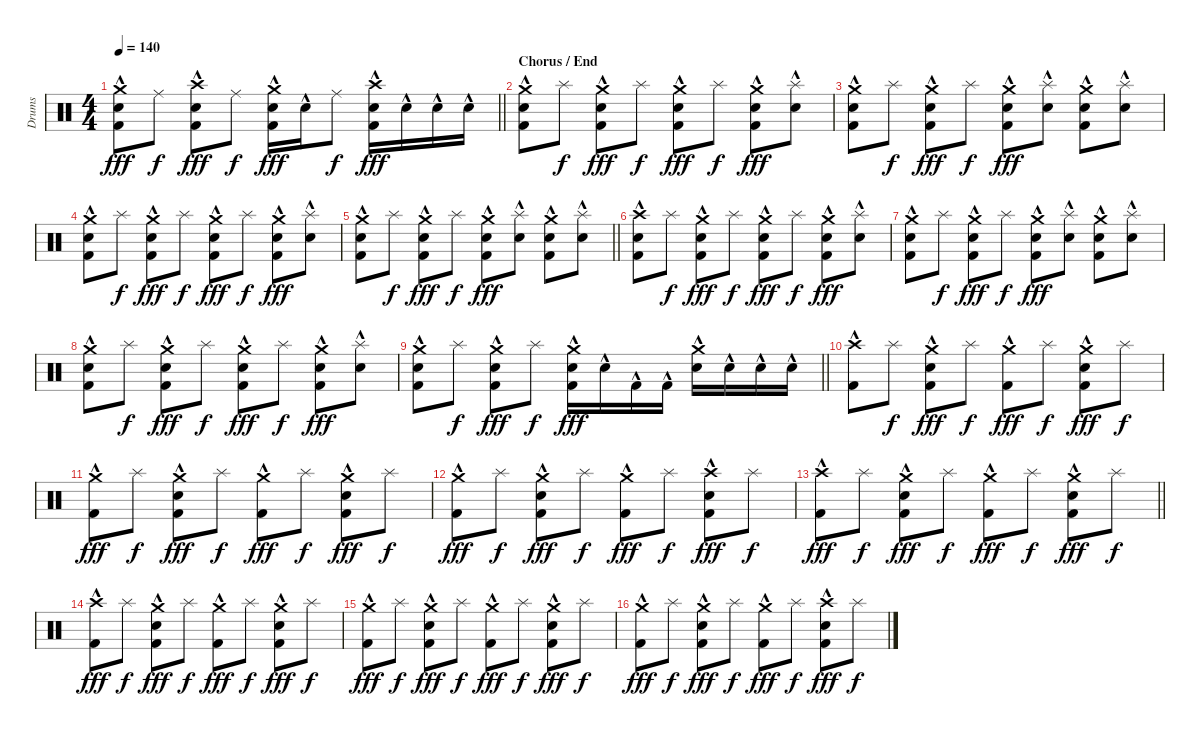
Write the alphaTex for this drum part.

\track ("Drums" "Drums") {instrument percussion}
\staff {score}
\articulation defaults
\ts (4 4)
\tempo 140
\clef neutral
\barLineRight lightlight
\ks c
("Kick (hit) 2"{hac} "Snare (hit) 2"{hac} "Crash medium (hit)").8{dy fff} "Ride (middle)".8{dy f} ("Kick (hit) 2"{hac} "Snare (hit) 2"{hac} "Crash high (hit)").8{dy fff} "Ride (middle)".8{dy f} ("Kick (hit) 2"{hac} "Snare (hit) 2"{hac} "Crash medium (hit)").16{dy fff} "Snare (hit) 2"{hac}.16 "Ride (middle)".8{dy f} ("Kick (hit) 2"{hac} "Snare (hit) 2"{hac} "Crash high (hit)").16{dy fff} "Snare (hit) 2"{hac}.16 "Snare (hit) 2"{hac}.16 "Snare (hit) 2"{hac}.16 |
\section ("" "Chorus / End")
("Kick (hit) 2"{hac} "Snare (hit) 2"{hac} "Crash medium (hit)").8 "Splash (hit)".8{dy f} ("Kick (hit) 2"{hac} "Snare (hit) 2"{hac} "Crash medium (hit)").8{dy fff} "Splash (hit)".8{dy f} ("Kick (hit) 2"{hac} "Snare (hit) 2" "Crash medium (hit)").8{dy fff} "Splash (hit)".8{dy f} ("Kick (hit) 2"{hac} "Snare (hit) 2"{hac} "Crash medium (hit)").8{dy fff} ("Snare (hit) 2"{hac} "Splash (hit)").8 |
("Kick (hit) 2"{hac} "Snare (hit) 2"{hac} "Crash medium (hit)").8 "Splash (hit)".8{dy f} ("Kick (hit) 2"{hac} "Snare (hit) 2"{hac} "Crash medium (hit)").8{dy fff} "Splash (hit)".8{dy f} ("Kick (hit) 2"{hac} "Snare (hit) 2" "Crash medium (hit)").8{dy fff} ("Snare (hit) 2"{hac} "Splash (hit)").8 ("Kick (hit) 2"{hac} "Snare (hit) 2"{hac} "Crash medium (hit)").8 ("Snare (hit) 2"{hac} "Splash (hit)").8 |
("Kick (hit) 2"{hac} "Snare (hit) 2"{hac} "Crash medium (hit)").8 "Splash (hit)".8{dy f} ("Kick (hit) 2"{hac} "Snare (hit) 2"{hac} "Crash medium (hit)").8{dy fff} "Splash (hit)".8{dy f} ("Kick (hit) 2"{hac} "Snare (hit) 2" "Crash medium (hit)").8{dy fff} "Splash (hit)".8{dy f} ("Kick (hit) 2"{hac} "Snare (hit) 2"{hac} "Crash medium (hit)").8{dy fff} ("Snare (hit) 2"{hac} "Splash (hit)").8 |
\barLineRight lightlight
("Kick (hit) 2"{hac} "Snare (hit) 2"{hac} "Crash medium (hit)").8 "Splash (hit)".8{dy f} ("Kick (hit) 2"{hac} "Snare (hit) 2"{hac} "Crash medium (hit)").8{dy fff} "Splash (hit)".8{dy f} ("Kick (hit) 2"{hac} "Snare (hit) 2" "Crash medium (hit)").8{dy fff} ("Snare (hit) 2"{hac} "Splash (hit)").8 ("Kick (hit) 2"{hac} "Snare (hit) 2"{hac} "Crash medium (hit)").8 ("Snare (hit) 2"{hac} "Splash (hit)").8 |
\section ("" "")
("Kick (hit) 2"{hac} "Snare (hit) 2"{hac} "Crash high (hit)").8 "Splash (hit)".8{dy f} ("Kick (hit) 2"{hac} "Snare (hit) 2"{hac} "Crash medium (hit)").8{dy fff} "Splash (hit)".8{dy f} ("Kick (hit) 2"{hac} "Snare (hit) 2" "Crash medium (hit)").8{dy fff} "Splash (hit)".8{dy f} ("Kick (hit) 2"{hac} "Snare (hit) 2"{hac} "Crash medium (hit)").8{dy fff} ("Snare (hit) 2"{hac} "Splash (hit)").8 |
("Kick (hit) 2"{hac} "Snare (hit) 2"{hac} "Crash medium (hit)").8 "Splash (hit)".8{dy f} ("Kick (hit) 2"{hac} "Snare (hit) 2"{hac} "Crash medium (hit)").8{dy fff} "Splash (hit)".8{dy f} ("Kick (hit) 2"{hac} "Snare (hit) 2" "Crash medium (hit)").8{dy fff} ("Snare (hit) 2"{hac} "Splash (hit)").8 ("Kick (hit) 2"{hac} "Snare (hit) 2"{hac} "Crash medium (hit)").8 ("Snare (hit) 2"{hac} "Splash (hit)").8 |
("Kick (hit) 2"{hac} "Snare (hit) 2"{hac} "Crash medium (hit)").8 "Splash (hit)".8{dy f} ("Kick (hit) 2"{hac} "Snare (hit) 2"{hac} "Crash medium (hit)").8{dy fff} "Splash (hit)".8{dy f} ("Kick (hit) 2"{hac} "Snare (hit) 2" "Crash medium (hit)").8{dy fff} "Splash (hit)".8{dy f} ("Kick (hit) 2"{hac} "Snare (hit) 2"{hac} "Crash medium (hit)").8{dy fff} ("Snare (hit) 2"{hac} "Splash (hit)").8 |
\barLineRight lightlight
("Kick (hit) 2"{hac} "Snare (hit) 2"{hac} "Crash medium (hit)").8 "Splash (hit)".8{dy f} ("Kick (hit) 2"{hac} "Snare (hit) 2"{hac} "Crash medium (hit)").8{dy fff} "Splash (hit)".8{dy f} ("Kick (hit) 2"{hac} "Snare (hit) 2" "Crash medium (hit)").16{dy fff} "Snare (hit) 2"{hac}.16 "Kick (hit) 2"{hac}.16 "Kick (hit) 2"{hac}.16 ("Snare (hit) 2"{hac} "Crash medium (hit)").16 "Snare (hit) 2"{hac}.16 "Snare (hit) 2"{hac}.16 "Snare (hit) 2"{hac}.16 |
\section ("" "")
("Kick (hit) 2"{hac} "Crash high (hit)").8 "Splash (hit)".8{dy f} ("Kick (hit) 2"{hac} "Snare (hit) 2"{hac} "Crash medium (hit)").8{dy fff} "Splash (hit)".8{dy f} ("Kick (hit) 2"{hac} "Crash medium (hit)").8{dy fff} "Splash (hit)".8{dy f} ("Kick (hit) 2"{hac} "Snare (hit) 2"{hac} "Crash medium (hit)").8{dy fff} "Splash (hit)".8{dy f} |
("Kick (hit) 2"{hac} "Crash medium (hit)").8{dy fff} "Splash (hit)".8{dy f} ("Kick (hit) 2"{hac} "Snare (hit) 2"{hac} "Crash medium (hit)").8{dy fff} "Splash (hit)".8{dy f} ("Kick (hit) 2"{hac} "Crash medium (hit)").8{dy fff} "Splash (hit)".8{dy f} ("Kick (hit) 2"{hac} "Snare (hit) 2"{hac} "Crash medium (hit)").8{dy fff} "Splash (hit)".8{dy f} |
("Kick (hit) 2"{hac} "Crash medium (hit)").8{dy fff} "Splash (hit)".8{dy f} ("Kick (hit) 2"{hac} "Snare (hit) 2"{hac} "Crash medium (hit)").8{dy fff} "Splash (hit)".8{dy f} ("Kick (hit) 2"{hac} "Crash medium (hit)").8{dy fff} "Splash (hit)".8{dy f} ("Kick (hit) 2"{hac} "Snare (hit) 2"{hac} "Crash high (hit)").8{dy fff} "Splash (hit)".8{dy f} |
\barLineRight lightlight
("Kick (hit) 2"{hac} "Crash high (hit)").8{dy fff} "Splash (hit)".8{dy f} ("Kick (hit) 2"{hac} "Snare (hit) 2"{hac} "Crash medium (hit)").8{dy fff} "Splash (hit)".8{dy f} ("Kick (hit) 2"{hac} "Crash medium (hit)").8{dy fff} "Splash (hit)".8{dy f} ("Kick (hit) 2"{hac} "Snare (hit) 2"{hac} "Crash medium (hit)").8{dy fff} "Splash (hit)".8{dy f} |
\section ("" "")
("Kick (hit) 2"{hac} "Crash high (hit)").8{dy fff} "Splash (hit)".8{dy f} ("Kick (hit) 2"{hac} "Snare (hit) 2"{hac} "Crash medium (hit)").8{dy fff} "Splash (hit)".8{dy f} ("Kick (hit) 2"{hac} "Crash medium (hit)").8{dy fff} "Splash (hit)".8{dy f} ("Kick (hit) 2"{hac} "Snare (hit) 2"{hac} "Crash medium (hit)").8{dy fff} "Splash (hit)".8{dy f} |
("Kick (hit) 2"{hac} "Crash medium (hit)").8{dy fff} "Splash (hit)".8{dy f} ("Kick (hit) 2"{hac} "Snare (hit) 2"{hac} "Crash medium (hit)").8{dy fff} "Splash (hit)".8{dy f} ("Kick (hit) 2"{hac} "Crash medium (hit)").8{dy fff} "Splash (hit)".8{dy f} ("Kick (hit) 2"{hac} "Snare (hit) 2"{hac} "Crash medium (hit)").8{dy fff} "Splash (hit)".8{dy f} |
("Kick (hit) 2"{hac} "Crash medium (hit)").8{dy fff} "Splash (hit)".8{dy f} ("Kick (hit) 2"{hac} "Snare (hit) 2"{hac} "Crash medium (hit)").8{dy fff} "Splash (hit)".8{dy f} ("Kick (hit) 2"{hac} "Crash medium (hit)").8{dy fff} "Splash (hit)".8{dy f} ("Kick (hit) 2"{hac} "Snare (hit) 2"{hac} "Crash high (hit)").8{dy fff} "Splash (hit)".8{dy f}
